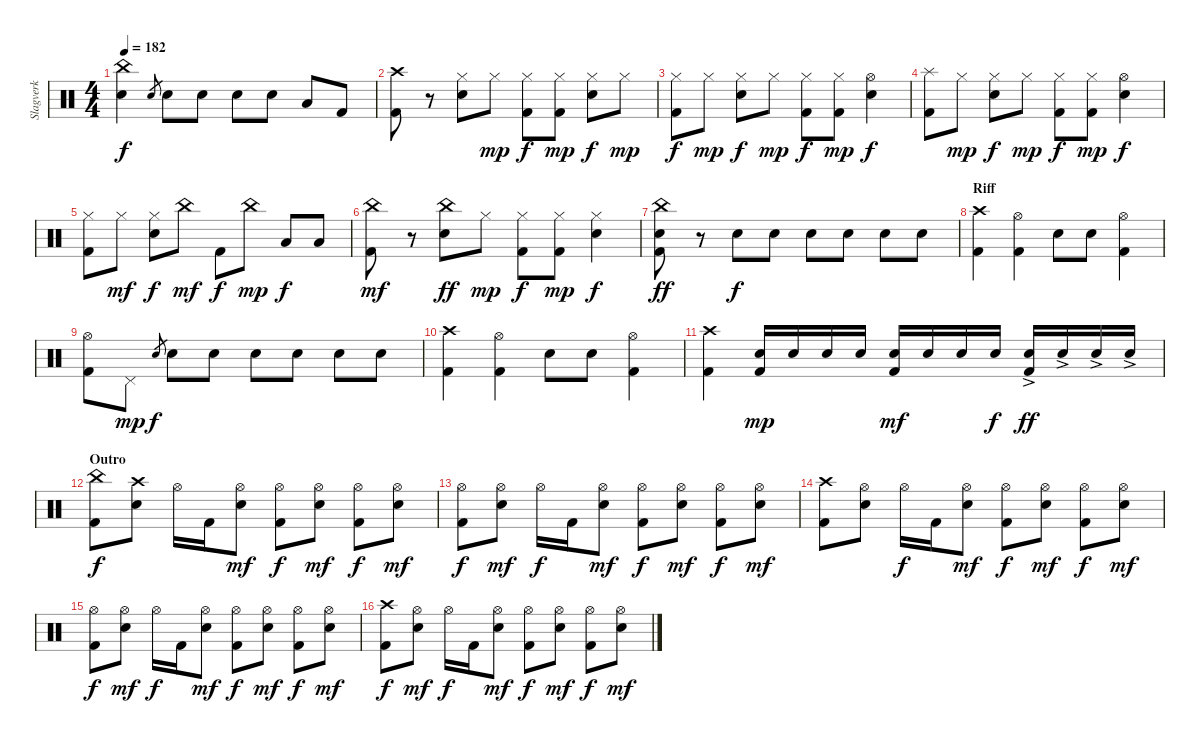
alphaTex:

\track ("Slagverk" "Slagverk") {instrument percussion}
\staff {score}
\articulation defaults
\ts (4 4)
\tempo 182
\clef neutral
\ks c
("China (hit)" "Electric Snare (hit)").4{dy f} "Electric Snare (hit)".8{gr} "Electric Snare (hit)".8 "Electric Snare (hit)".8 "Electric Snare (hit)".8 "Electric Snare (hit)".8 "Low Floor Tom (hit)".8 "Kick (hit) 2".8 |
("Crash high (hit)" "Kick (hit) 2").8 r.8 ("Hi-Hat (closed)" "Electric Snare (hit)").8 "Hi-Hat (closed)".8{dy mp} ("Hi-Hat (closed)" "Kick (hit) 2").8{dy f} ("Hi-Hat (closed)" "Kick (hit) 2").8{dy mp} ("Hi-Hat (closed)" "Electric Snare (hit)").8{dy f} "Hi-Hat (closed)".8{dy mp} |
("Hi-Hat (closed)" "Kick (hit) 2").8{dy f} "Hi-Hat (closed)".8{dy mp} ("Hi-Hat (closed)" "Electric Snare (hit)").8{dy f} "Hi-Hat (closed)".8{dy mp} ("Hi-Hat (closed)" "Kick (hit) 2").8{dy f} ("Hi-Hat (closed)" "Kick (hit) 2").8{dy mp} ("Hi-Hat (open)" "Electric Snare (hit)").4{dy f} |
("Splash (hit)" "Kick (hit) 2").8 "Hi-Hat (closed)".8{dy mp} ("Hi-Hat (closed)" "Electric Snare (hit)").8{dy f} "Hi-Hat (closed)".8{dy mp} ("Hi-Hat (closed)" "Kick (hit) 2").8{dy f} ("Hi-Hat (closed)" "Kick (hit) 2").8{dy mp} ("Hi-Hat (open)" "Electric Snare (hit)").4{dy f} |
("Hi-Hat (closed)" "Kick (hit) 2").8 "Hi-Hat (closed)".8{dy mf} ("Hi-Hat (closed)" "Electric Snare (hit)").8{dy f} "China (hit)".8{dy mf} "Kick (hit) 2".8{dy f} "China (hit)".8{dy mp} "Low Floor Tom (hit)".8{dy f} "Low Floor Tom (hit)".8 |
("China (hit)" "Kick (hit) 2").8{dy mf} r.8 ("China (hit)" "Electric Snare (hit)").8{dy ff} "Hi-Hat (closed)".8{dy mp} ("Hi-Hat (closed)" "Kick (hit) 2").8{dy f} ("Hi-Hat (closed)" "Kick (hit) 2").8{dy mp} ("Hi-Hat (closed)" "Electric Snare (hit)").4{dy f} |
("China (hit)" "Electric Snare (hit)" "Kick (hit) 2").8{dy ff} r.8 "Electric Snare (hit)".8{dy f} "Electric Snare (hit)".8 "Electric Snare (hit)".8 "Electric Snare (hit)".8 "Electric Snare (hit)".8 "Electric Snare (hit)".8 |
\section ("" "Riff")
("Crash high (hit)" "Kick (hit) 2").4 ("Hi-Hat (open)" "Kick (hit) 2").4 "Electric Snare (hit)".8 "Electric Snare (hit)".8 ("Hi-Hat (open)" "Kick (hit) 2").4 |
("Hi-Hat (open)" "Kick (hit) 2").8 "Pedal Hi-Hat (hit)".8{dy mp} "Electric Snare (hit)".8{gr dy f} "Electric Snare (hit)".8 "Electric Snare (hit)".8 "Electric Snare (hit)".8 "Electric Snare (hit)".8 "Electric Snare (hit)".8 "Electric Snare (hit)".8 |
("Crash high (hit)" "Kick (hit) 2").4 ("Hi-Hat (open)" "Kick (hit) 2").4 "Electric Snare (hit)".8 "Electric Snare (hit)".8 ("Hi-Hat (open)" "Kick (hit) 2").4 |
("Crash high (hit)" "Kick (hit) 2").4 ("Electric Snare (hit)" "Kick (hit) 2").16{dy mp} "Electric Snare (hit)".16 "Electric Snare (hit)".16 "Electric Snare (hit)".16 ("Electric Snare (hit)" "Kick (hit) 2").16{dy mf} "Electric Snare (hit)".16 "Electric Snare (hit)".16 "Electric Snare (hit)".16{dy f} ("Electric Snare (hit)"{ac} "Kick (hit) 2").16{dy ff} "Electric Snare (hit)"{ac}.16 "Electric Snare (hit)"{ac}.16 "Electric Snare (hit)"{ac}.16 |
\section ("" "Outro")
("China (hit)" "Kick (hit) 2").8{dy f} ("Crash high (hit)" "Electric Snare (hit)").8 "Hi-Hat (open)".16 "Kick (hit) 2".16 ("Hi-Hat (open)" "Electric Snare (hit)").8{dy mf} ("Hi-Hat (open)" "Kick (hit) 2").8{dy f} ("Hi-Hat (open)" "Electric Snare (hit)").8{dy mf} ("Hi-Hat (open)" "Kick (hit) 2").8{dy f} ("Hi-Hat (open)" "Electric Snare (hit)").8{dy mf} |
("Hi-Hat (open)" "Kick (hit) 2").8{dy f} ("Hi-Hat (open)" "Electric Snare (hit)").8{dy mf} "Hi-Hat (open)".16{dy f} "Kick (hit) 2".16 ("Hi-Hat (open)" "Electric Snare (hit)").8{dy mf} ("Hi-Hat (open)" "Kick (hit) 2").8{dy f} ("Hi-Hat (open)" "Electric Snare (hit)").8{dy mf} ("Hi-Hat (open)" "Kick (hit) 2").8{dy f} ("Hi-Hat (open)" "Electric Snare (hit)").8{dy mf} |
("Crash high (hit)" "Kick (hit) 2").8 ("Hi-Hat (open)" "Electric Snare (hit)").8 "Hi-Hat (open)".16{dy f} "Kick (hit) 2".16 ("Hi-Hat (open)" "Electric Snare (hit)").8{dy mf} ("Hi-Hat (open)" "Kick (hit) 2").8{dy f} ("Hi-Hat (open)" "Electric Snare (hit)").8{dy mf} ("Hi-Hat (open)" "Kick (hit) 2").8{dy f} ("Hi-Hat (open)" "Electric Snare (hit)").8{dy mf} |
("Hi-Hat (open)" "Kick (hit) 2").8{dy f} ("Hi-Hat (open)" "Electric Snare (hit)").8{dy mf} "Hi-Hat (open)".16{dy f} "Kick (hit) 2".16 ("Hi-Hat (open)" "Electric Snare (hit)").8{dy mf} ("Hi-Hat (open)" "Kick (hit) 2").8{dy f} ("Hi-Hat (open)" "Electric Snare (hit)").8{dy mf} ("Hi-Hat (open)" "Kick (hit) 2").8{dy f} ("Hi-Hat (open)" "Electric Snare (hit)").8{dy mf} |
("Crash high (hit)" "Kick (hit) 2").8{dy f} ("Hi-Hat (open)" "Electric Snare (hit)").8{dy mf} "Hi-Hat (open)".16{dy f} "Kick (hit) 2".16 ("Hi-Hat (open)" "Electric Snare (hit)").8{dy mf} ("Hi-Hat (open)" "Kick (hit) 2").8{dy f} ("Hi-Hat (open)" "Electric Snare (hit)").8{dy mf} ("Hi-Hat (open)" "Kick (hit) 2").8{dy f} ("Hi-Hat (open)" "Electric Snare (hit)").8{dy mf}
